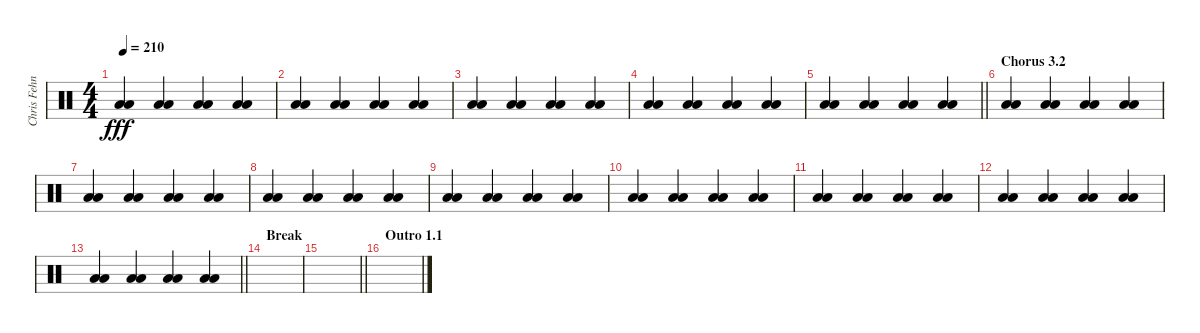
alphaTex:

\track ("Chris Fehn" "Chris Fehn") {instrument percussion}
\staff {score}
\articulation defaults
\ts (4 4)
\tempo 210
\clef neutral
\ks c
("Low Floor Tom (hit)" "Low Floor Tom (hit)").4{dy fff} ("Low Floor Tom (hit)" "Low Floor Tom (hit)").4 ("Low Floor Tom (hit)" "Low Floor Tom (hit)").4 ("Low Floor Tom (hit)" "Low Floor Tom (hit)").4 |
("Low Floor Tom (hit)" "Low Floor Tom (hit)").4 ("Low Floor Tom (hit)" "Low Floor Tom (hit)").4 ("Low Floor Tom (hit)" "Low Floor Tom (hit)").4 ("Low Floor Tom (hit)" "Low Floor Tom (hit)").4 |
("Low Floor Tom (hit)" "Low Floor Tom (hit)").4 ("Low Floor Tom (hit)" "Low Floor Tom (hit)").4 ("Low Floor Tom (hit)" "Low Floor Tom (hit)").4 ("Low Floor Tom (hit)" "Low Floor Tom (hit)").4 |
("Low Floor Tom (hit)" "Low Floor Tom (hit)").4 ("Low Floor Tom (hit)" "Low Floor Tom (hit)").4 ("Low Floor Tom (hit)" "Low Floor Tom (hit)").4 ("Low Floor Tom (hit)" "Low Floor Tom (hit)").4 |
\barLineRight lightlight
("Low Floor Tom (hit)" "Low Floor Tom (hit)").4 ("Low Floor Tom (hit)" "Low Floor Tom (hit)").4 ("Low Floor Tom (hit)" "Low Floor Tom (hit)").4 ("Low Floor Tom (hit)" "Low Floor Tom (hit)").4 |
\section ("" "Chorus 3.2")
("Low Floor Tom (hit)" "Low Floor Tom (hit)").4 ("Low Floor Tom (hit)" "Low Floor Tom (hit)").4 ("Low Floor Tom (hit)" "Low Floor Tom (hit)").4 ("Low Floor Tom (hit)" "Low Floor Tom (hit)").4 |
("Low Floor Tom (hit)" "Low Floor Tom (hit)").4 ("Low Floor Tom (hit)" "Low Floor Tom (hit)").4 ("Low Floor Tom (hit)" "Low Floor Tom (hit)").4 ("Low Floor Tom (hit)" "Low Floor Tom (hit)").4 |
("Low Floor Tom (hit)" "Low Floor Tom (hit)").4 ("Low Floor Tom (hit)" "Low Floor Tom (hit)").4 ("Low Floor Tom (hit)" "Low Floor Tom (hit)").4 ("Low Floor Tom (hit)" "Low Floor Tom (hit)").4 |
("Low Floor Tom (hit)" "Low Floor Tom (hit)").4 ("Low Floor Tom (hit)" "Low Floor Tom (hit)").4 ("Low Floor Tom (hit)" "Low Floor Tom (hit)").4 ("Low Floor Tom (hit)" "Low Floor Tom (hit)").4 |
("Low Floor Tom (hit)" "Low Floor Tom (hit)").4 ("Low Floor Tom (hit)" "Low Floor Tom (hit)").4 ("Low Floor Tom (hit)" "Low Floor Tom (hit)").4 ("Low Floor Tom (hit)" "Low Floor Tom (hit)").4 |
("Low Floor Tom (hit)" "Low Floor Tom (hit)").4 ("Low Floor Tom (hit)" "Low Floor Tom (hit)").4 ("Low Floor Tom (hit)" "Low Floor Tom (hit)").4 ("Low Floor Tom (hit)" "Low Floor Tom (hit)").4 |
("Low Floor Tom (hit)" "Low Floor Tom (hit)").4 ("Low Floor Tom (hit)" "Low Floor Tom (hit)").4 ("Low Floor Tom (hit)" "Low Floor Tom (hit)").4 ("Low Floor Tom (hit)" "Low Floor Tom (hit)").4 |
\barLineRight lightlight
("Low Floor Tom (hit)" "Low Floor Tom (hit)").4 ("Low Floor Tom (hit)" "Low Floor Tom (hit)").4 ("Low Floor Tom (hit)" "Low Floor Tom (hit)").4 ("Low Floor Tom (hit)" "Low Floor Tom (hit)").4 |
\section ("" "Break")
|
\barLineRight lightlight
|
\section ("" "Outro 1.1")
